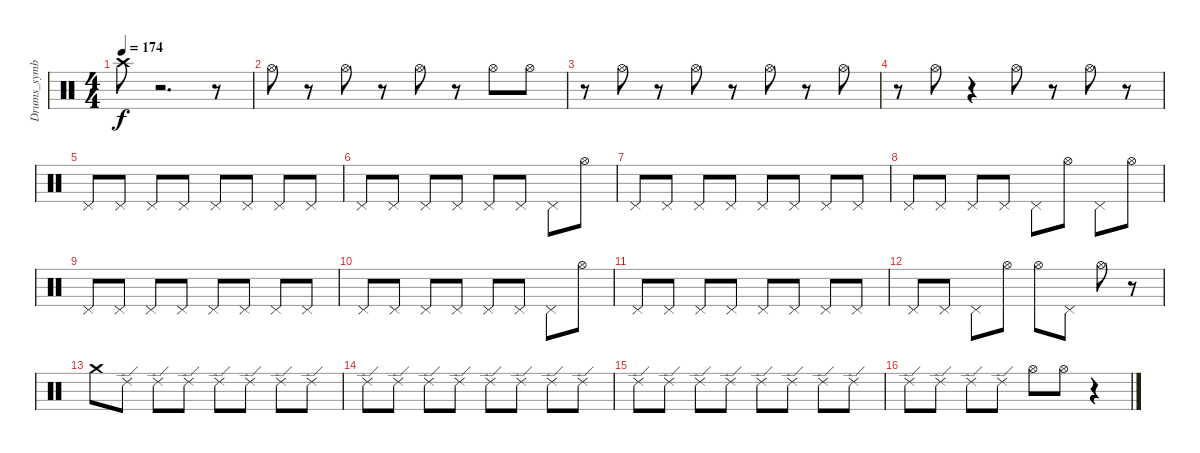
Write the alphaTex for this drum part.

\track ("Drums_symbal" "Drums_symb") {instrument percussion}
\staff {score}
\articulation defaults
\ts (4 4)
\tempo 174
\clef neutral
\ks c "Crash high (hit)".8{dy f}
r.2{d} r.8 |
"Hi-Hat (open)".8 r.8 "Hi-Hat (open)".8 r.8 "Hi-Hat (open)".8 r.8 "Hi-Hat (open)".8 "Hi-Hat (open)".8 |
r.8 "Hi-Hat (open)".8 r.8 "Hi-Hat (open)".8 r.8 "Hi-Hat (open)".8 r.8 "Hi-Hat (open)".8 |
r.8 "Hi-Hat (open)".8 r.4 "Hi-Hat (open)".8 r.8 "Hi-Hat (open)".8 r.8 |
"Pedal Hi-Hat (hit)".8 "Pedal Hi-Hat (hit)".8 "Pedal Hi-Hat (hit)".8 "Pedal Hi-Hat (hit)".8 "Pedal Hi-Hat (hit)".8 "Pedal Hi-Hat (hit)".8 "Pedal Hi-Hat (hit)".8 "Pedal Hi-Hat (hit)".8 |
"Pedal Hi-Hat (hit)".8 "Pedal Hi-Hat (hit)".8 "Pedal Hi-Hat (hit)".8 "Pedal Hi-Hat (hit)".8 "Pedal Hi-Hat (hit)".8 "Pedal Hi-Hat (hit)".8 "Pedal Hi-Hat (hit)".8 "Hi-Hat (open)".8 |
"Pedal Hi-Hat (hit)".8 "Pedal Hi-Hat (hit)".8 "Pedal Hi-Hat (hit)".8 "Pedal Hi-Hat (hit)".8 "Pedal Hi-Hat (hit)".8 "Pedal Hi-Hat (hit)".8 "Pedal Hi-Hat (hit)".8 "Pedal Hi-Hat (hit)".8 |
"Pedal Hi-Hat (hit)".8 "Pedal Hi-Hat (hit)".8 "Pedal Hi-Hat (hit)".8 "Pedal Hi-Hat (hit)".8 "Pedal Hi-Hat (hit)".8 "Hi-Hat (open)".8 "Pedal Hi-Hat (hit)".8 "Hi-Hat (open)".8 |
"Pedal Hi-Hat (hit)".8 "Pedal Hi-Hat (hit)".8 "Pedal Hi-Hat (hit)".8 "Pedal Hi-Hat (hit)".8 "Pedal Hi-Hat (hit)".8 "Pedal Hi-Hat (hit)".8 "Pedal Hi-Hat (hit)".8 "Pedal Hi-Hat (hit)".8 |
"Pedal Hi-Hat (hit)".8 "Pedal Hi-Hat (hit)".8 "Pedal Hi-Hat (hit)".8 "Pedal Hi-Hat (hit)".8 "Pedal Hi-Hat (hit)".8 "Pedal Hi-Hat (hit)".8 "Pedal Hi-Hat (hit)".8 "Hi-Hat (open)".8 |
"Pedal Hi-Hat (hit)".8 "Pedal Hi-Hat (hit)".8 "Pedal Hi-Hat (hit)".8 "Pedal Hi-Hat (hit)".8 "Pedal Hi-Hat (hit)".8 "Pedal Hi-Hat (hit)".8 "Pedal Hi-Hat (hit)".8 "Pedal Hi-Hat (hit)".8 |
"Pedal Hi-Hat (hit)".8 "Pedal Hi-Hat (hit)".8 "Pedal Hi-Hat (hit)".8 "Hi-Hat (open)".8 "Hi-Hat (open)".8 "Pedal Hi-Hat (hit)".8 "Hi-Hat (open)".8 r.8 |
"Crash medium (hit)".8 "Ride (edge) 2".8 "Ride (edge) 2".8 "Ride (edge) 2".8 "Ride (edge) 2".8 "Ride (edge) 2".8 "Ride (edge) 2".8 "Ride (edge) 2".8 |
"Ride (edge) 2".8 "Ride (edge) 2".8 "Ride (edge) 2".8 "Ride (edge) 2".8 "Ride (edge) 2".8 "Ride (edge) 2".8 "Ride (edge) 2".8 "Ride (edge) 2".8 |
"Ride (edge) 2".8 "Ride (edge) 2".8 "Ride (edge) 2".8 "Ride (edge) 2".8 "Ride (edge) 2".8 "Ride (edge) 2".8 "Ride (edge) 2".8 "Ride (edge) 2".8 |
"Ride (edge) 2".8 "Ride (edge) 2".8 "Ride (edge) 2".8 "Ride (edge) 2".8 "Hi-Hat (open)".8 "Hi-Hat (open)".8 r.4
